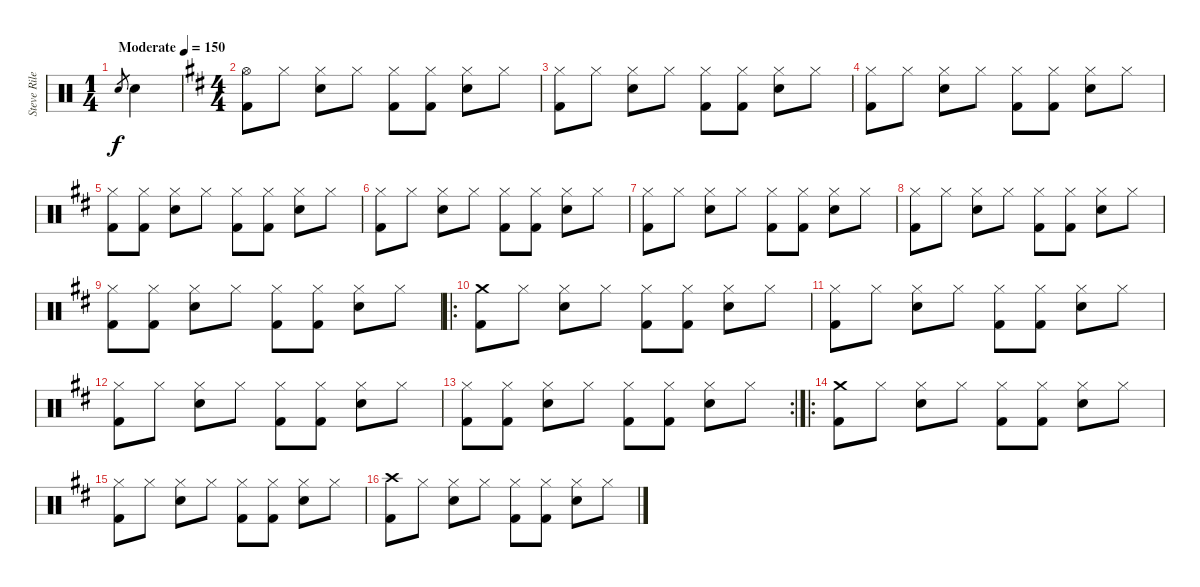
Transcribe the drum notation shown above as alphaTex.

\track ("Steve Riley" "Steve Rile") {instrument percussion}
\staff {score}
\articulation defaults
\ts (1 4)
\tempo (150 "Moderate")
\clef neutral
\ks c "Electric Snare (hit)".8{gr dy f} "Electric Snare (hit)".4
|
\ts (4 4)
\ks d
("Hi-Hat (open)" "Kick (hit) 2").8 "Hi-Hat (closed)".8 ("Hi-Hat (closed)" "Electric Snare (hit)").8 "Hi-Hat (closed)".8 ("Hi-Hat (closed)" "Kick (hit) 2").8 ("Hi-Hat (closed)" "Kick (hit) 2").8 ("Hi-Hat (closed)" "Electric Snare (hit)").8 "Hi-Hat (closed)".8 |
("Hi-Hat (closed)" "Kick (hit) 2").8 "Hi-Hat (closed)".8 ("Hi-Hat (closed)" "Electric Snare (hit)").8 "Hi-Hat (closed)".8 ("Hi-Hat (closed)" "Kick (hit) 2").8 ("Hi-Hat (closed)" "Kick (hit) 2").8 ("Hi-Hat (closed)" "Electric Snare (hit)").8 "Hi-Hat (closed)".8 |
("Hi-Hat (closed)" "Kick (hit) 2").8 "Hi-Hat (closed)".8 ("Hi-Hat (closed)" "Electric Snare (hit)").8 "Hi-Hat (closed)".8 ("Hi-Hat (closed)" "Kick (hit) 2").8 ("Hi-Hat (closed)" "Kick (hit) 2").8 ("Hi-Hat (closed)" "Electric Snare (hit)").8 "Hi-Hat (closed)".8 |
("Hi-Hat (closed)" "Kick (hit) 2").8 ("Hi-Hat (closed)" "Kick (hit) 2").8 ("Hi-Hat (closed)" "Electric Snare (hit)").8 "Hi-Hat (closed)".8 ("Hi-Hat (closed)" "Kick (hit) 2").8 ("Hi-Hat (closed)" "Kick (hit) 2").8 ("Hi-Hat (closed)" "Electric Snare (hit)").8 "Hi-Hat (closed)".8 |
("Hi-Hat (closed)" "Kick (hit) 2").8 "Hi-Hat (closed)".8 ("Hi-Hat (closed)" "Electric Snare (hit)").8 "Hi-Hat (closed)".8 ("Hi-Hat (closed)" "Kick (hit) 2").8 ("Hi-Hat (closed)" "Kick (hit) 2").8 ("Hi-Hat (closed)" "Electric Snare (hit)").8 "Hi-Hat (closed)".8 |
("Hi-Hat (closed)" "Kick (hit) 2").8 "Hi-Hat (closed)".8 ("Hi-Hat (closed)" "Electric Snare (hit)").8 "Hi-Hat (closed)".8 ("Hi-Hat (closed)" "Kick (hit) 2").8 ("Hi-Hat (closed)" "Kick (hit) 2").8 ("Hi-Hat (closed)" "Electric Snare (hit)").8 "Hi-Hat (closed)".8 |
("Hi-Hat (closed)" "Kick (hit) 2").8 "Hi-Hat (closed)".8 ("Hi-Hat (closed)" "Electric Snare (hit)").8 "Hi-Hat (closed)".8 ("Hi-Hat (closed)" "Kick (hit) 2").8 ("Hi-Hat (closed)" "Kick (hit) 2").8 ("Hi-Hat (closed)" "Electric Snare (hit)").8 "Hi-Hat (closed)".8 |
("Hi-Hat (closed)" "Kick (hit) 2").8 ("Hi-Hat (closed)" "Kick (hit) 2").8 ("Hi-Hat (closed)" "Electric Snare (hit)").8 "Hi-Hat (closed)".8 ("Hi-Hat (closed)" "Kick (hit) 2").8 ("Hi-Hat (closed)" "Kick (hit) 2").8 ("Hi-Hat (closed)" "Electric Snare (hit)").8 "Hi-Hat (closed)".8 |
\ro
("Crash medium (hit)" "Kick (hit) 2").8 "Hi-Hat (closed)".8 ("Hi-Hat (closed)" "Electric Snare (hit)").8 "Hi-Hat (closed)".8 ("Hi-Hat (closed)" "Kick (hit) 2").8 ("Hi-Hat (closed)" "Kick (hit) 2").8 ("Hi-Hat (closed)" "Electric Snare (hit)").8 "Hi-Hat (closed)".8 |
("Hi-Hat (closed)" "Kick (hit) 2").8 "Hi-Hat (closed)".8 ("Hi-Hat (closed)" "Electric Snare (hit)").8 "Hi-Hat (closed)".8 ("Hi-Hat (closed)" "Kick (hit) 2").8 ("Hi-Hat (closed)" "Kick (hit) 2").8 ("Hi-Hat (closed)" "Electric Snare (hit)").8 "Hi-Hat (closed)".8 |
("Hi-Hat (closed)" "Kick (hit) 2").8 "Hi-Hat (closed)".8 ("Hi-Hat (closed)" "Electric Snare (hit)").8 "Hi-Hat (closed)".8 ("Hi-Hat (closed)" "Kick (hit) 2").8 ("Hi-Hat (closed)" "Kick (hit) 2").8 ("Hi-Hat (closed)" "Electric Snare (hit)").8 "Hi-Hat (closed)".8 |
\rc 2
("Hi-Hat (closed)" "Kick (hit) 2").8 ("Hi-Hat (closed)" "Kick (hit) 2").8 ("Hi-Hat (closed)" "Electric Snare (hit)").8 "Hi-Hat (closed)".8 ("Hi-Hat (closed)" "Kick (hit) 2").8 ("Hi-Hat (closed)" "Kick (hit) 2").8 ("Hi-Hat (closed)" "Electric Snare (hit)").8 "Hi-Hat (closed)".8 |
\ro
("Crash medium (hit)" "Kick (hit) 2").8 "Hi-Hat (closed)".8 ("Hi-Hat (closed)" "Electric Snare (hit)").8 "Hi-Hat (closed)".8 ("Hi-Hat (closed)" "Kick (hit) 2").8 ("Hi-Hat (closed)" "Kick (hit) 2").8 ("Hi-Hat (closed)" "Electric Snare (hit)").8 "Hi-Hat (closed)".8 |
("Hi-Hat (closed)" "Kick (hit) 2").8 "Hi-Hat (closed)".8 ("Hi-Hat (closed)" "Electric Snare (hit)").8 "Hi-Hat (closed)".8 ("Hi-Hat (closed)" "Kick (hit) 2").8 ("Hi-Hat (closed)" "Kick (hit) 2").8 ("Hi-Hat (closed)" "Electric Snare (hit)").8 "Hi-Hat (closed)".8 |
("Crash high (hit)" "Kick (hit) 2").8 "Hi-Hat (closed)".8 ("Hi-Hat (closed)" "Electric Snare (hit)").8 "Hi-Hat (closed)".8 ("Hi-Hat (closed)" "Kick (hit) 2").8 ("Hi-Hat (closed)" "Kick (hit) 2").8 ("Hi-Hat (closed)" "Electric Snare (hit)").8 "Hi-Hat (closed)".8
